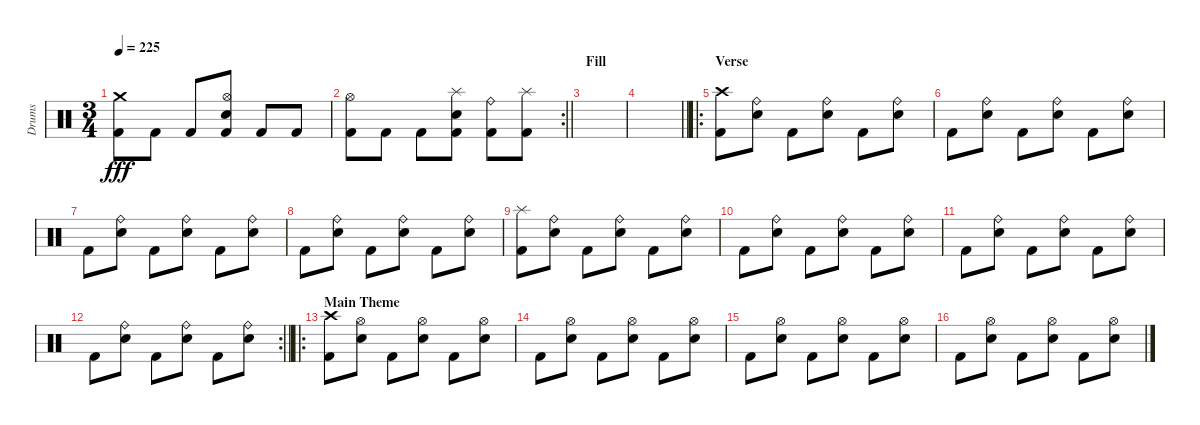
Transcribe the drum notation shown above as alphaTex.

\track ("Drums" "Drums") {instrument percussion}
\staff {score}
\articulation defaults
\ts (3 4)
\tempo 225
\clef neutral
\ks c
("Crash medium (hit)" "Kick (hit) 2").8{dy fff} "Kick (hit) 2".8 "Kick (hit) 2".8 ("Hi-Hat (open)" "Electric Snare (hit)" "Kick (hit) 2").8 "Kick (hit) 2".8 "Kick (hit) 2".8 |
\rc 2
\barLineRight lightlight
("Hi-Hat (open)" "Kick (hit) 2").8 "Kick (hit) 2".8 "Kick (hit) 2".8 ("Splash (hit)" "Electric Snare (hit)" "Kick (hit) 2").8 ("Ride (bell)" "Kick (hit) 2").8 ("Splash (hit)" "Kick (hit) 2").8 |
\section ("" "Fill")
|
\barLineRight lightlight
|
\ro
\section ("" "Verse")
("Crash high (hit)" "Kick (hit) 2").8 ("Ride (bell)" "Electric Snare (hit)").8 "Kick (hit) 2".8 ("Ride (bell)" "Electric Snare (hit)").8 "Kick (hit) 2".8 ("Ride (bell)" "Electric Snare (hit)").8 |
"Kick (hit) 2".8 ("Ride (bell)" "Electric Snare (hit)").8 "Kick (hit) 2".8 ("Ride (bell)" "Electric Snare (hit)").8 "Kick (hit) 2".8 ("Ride (bell)" "Electric Snare (hit)").8 |
"Kick (hit) 2".8 ("Ride (bell)" "Electric Snare (hit)").8 "Kick (hit) 2".8 ("Ride (bell)" "Electric Snare (hit)").8 "Kick (hit) 2".8 ("Ride (bell)" "Electric Snare (hit)").8 |
"Kick (hit) 2".8 ("Ride (bell)" "Electric Snare (hit)").8 "Kick (hit) 2".8 ("Ride (bell)" "Electric Snare (hit)").8 "Kick (hit) 2".8 ("Ride (bell)" "Electric Snare (hit)").8 |
("Splash (hit)" "Kick (hit) 2").8 ("Ride (bell)" "Electric Snare (hit)").8 "Kick (hit) 2".8 ("Ride (bell)" "Electric Snare (hit)").8 "Kick (hit) 2".8 ("Ride (bell)" "Electric Snare (hit)").8 |
"Kick (hit) 2".8 ("Ride (bell)" "Electric Snare (hit)").8 "Kick (hit) 2".8 ("Ride (bell)" "Electric Snare (hit)").8 "Kick (hit) 2".8 ("Ride (bell)" "Electric Snare (hit)").8 |
"Kick (hit) 2".8 ("Ride (bell)" "Electric Snare (hit)").8 "Kick (hit) 2".8 ("Ride (bell)" "Electric Snare (hit)").8 "Kick (hit) 2".8 ("Ride (bell)" "Electric Snare (hit)").8 |
\rc 2
\barLineRight lightlight "Kick (hit) 2".8
("Ride (bell)" "Electric Snare (hit)").8 "Kick (hit) 2".8 ("Ride (bell)" "Electric Snare (hit)").8 "Kick (hit) 2".8 ("Ride (bell)" "Electric Snare (hit)").8 |
\ro
\section ("" "Main Theme")
("Crash high (hit)" "Kick (hit) 2").8 ("Hi-Hat (open)" "Electric Snare (hit)").8 "Kick (hit) 2".8 ("Hi-Hat (open)" "Electric Snare (hit)").8 "Kick (hit) 2".8 ("Hi-Hat (open)" "Electric Snare (hit)").8 |
"Kick (hit) 2".8 ("Hi-Hat (open)" "Electric Snare (hit)").8 "Kick (hit) 2".8 ("Hi-Hat (open)" "Electric Snare (hit)").8 "Kick (hit) 2".8 ("Hi-Hat (open)" "Electric Snare (hit)").8 |
"Kick (hit) 2".8 ("Hi-Hat (open)" "Electric Snare (hit)").8 "Kick (hit) 2".8 ("Hi-Hat (open)" "Electric Snare (hit)").8 "Kick (hit) 2".8 ("Hi-Hat (open)" "Electric Snare (hit)").8 |
"Kick (hit) 2".8 ("Hi-Hat (open)" "Electric Snare (hit)").8 "Kick (hit) 2".8 ("Hi-Hat (open)" "Electric Snare (hit)").8 "Kick (hit) 2".8 ("Hi-Hat (open)" "Electric Snare (hit)").8
